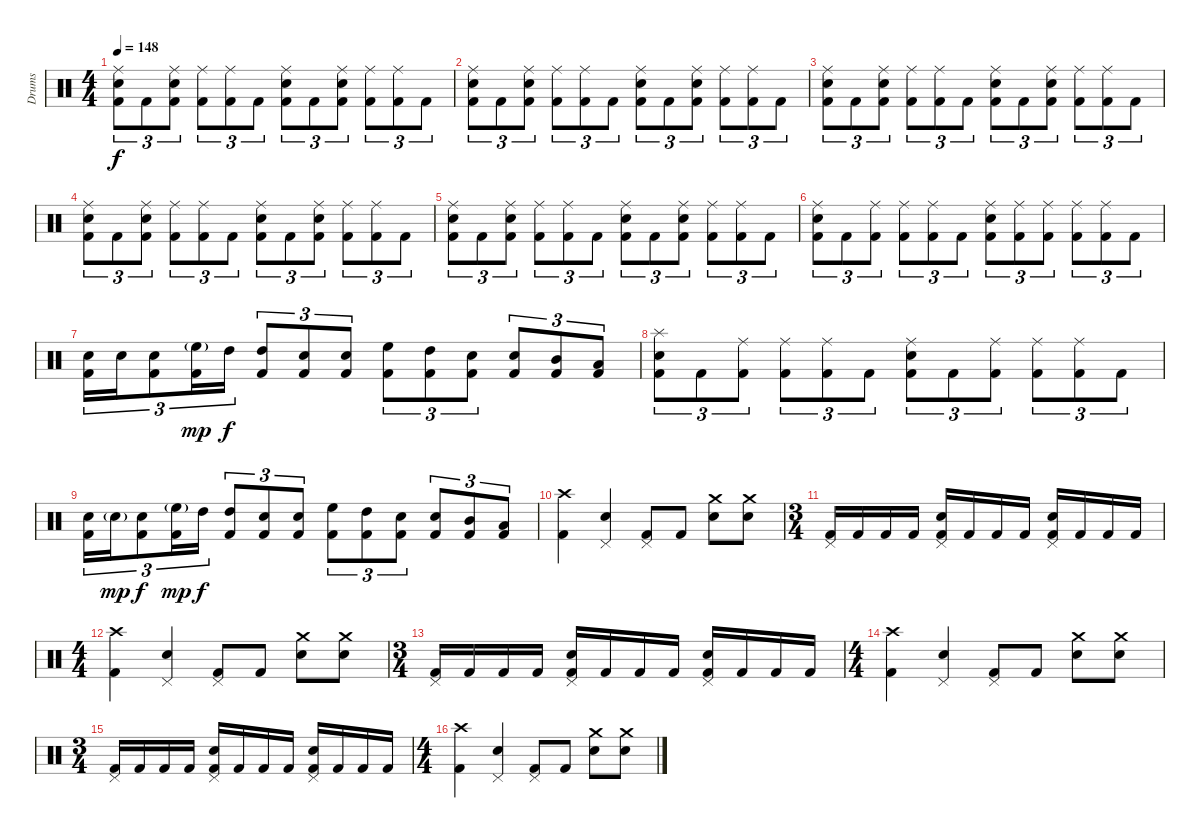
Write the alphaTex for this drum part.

\track ("Drums" "Drums") {instrument percussion}
\staff {score}
\articulation defaults
\ts (4 4)
\tempo 148
\clef neutral
\ks c
("Ride (middle)" "Snare (hit) 2" "Kick (hit) 2").8{tu (3 2) dy f} "Kick (hit) 2".8{tu (3 2)} ("Ride (middle)" "Snare (hit) 2" "Kick (hit) 2").8{tu (3 2)} ("Ride (middle)" "Kick (hit) 2").8{tu (3 2)} ("Ride (middle)" "Kick (hit) 2").8{tu (3 2)} "Kick (hit) 2".8{tu (3 2)} ("Ride (middle)" "Snare (hit) 2" "Kick (hit) 2").8{tu (3 2)} "Kick (hit) 2".8{tu (3 2)} ("Ride (middle)" "Snare (hit) 2" "Kick (hit) 2").8{tu (3 2)} ("Ride (middle)" "Kick (hit) 2").8{tu (3 2)} ("Ride (middle)" "Kick (hit) 2").8{tu (3 2)} "Kick (hit) 2".8{tu (3 2)} |
("Ride (middle)" "Snare (hit) 2" "Kick (hit) 2").8{tu (3 2)} "Kick (hit) 2".8{tu (3 2)} ("Ride (middle)" "Snare (hit) 2" "Kick (hit) 2").8{tu (3 2)} ("Ride (middle)" "Kick (hit) 2").8{tu (3 2)} ("Ride (middle)" "Kick (hit) 2").8{tu (3 2)} "Kick (hit) 2".8{tu (3 2)} ("Ride (middle)" "Snare (hit) 2" "Kick (hit) 2").8{tu (3 2)} "Kick (hit) 2".8{tu (3 2)} ("Ride (middle)" "Snare (hit) 2" "Kick (hit) 2").8{tu (3 2)} ("Ride (middle)" "Kick (hit) 2").8{tu (3 2)} ("Ride (middle)" "Kick (hit) 2").8{tu (3 2)} "Kick (hit) 2".8{tu (3 2)} |
("Ride (middle)" "Snare (hit) 2" "Kick (hit) 2").8{tu (3 2)} "Kick (hit) 2".8{tu (3 2)} ("Ride (middle)" "Snare (hit) 2" "Kick (hit) 2").8{tu (3 2)} ("Ride (middle)" "Kick (hit) 2").8{tu (3 2)} ("Ride (middle)" "Kick (hit) 2").8{tu (3 2)} "Kick (hit) 2".8{tu (3 2)} ("Ride (middle)" "Snare (hit) 2" "Kick (hit) 2").8{tu (3 2)} "Kick (hit) 2".8{tu (3 2)} ("Ride (middle)" "Snare (hit) 2" "Kick (hit) 2").8{tu (3 2)} ("Ride (middle)" "Kick (hit) 2").8{tu (3 2)} ("Ride (middle)" "Kick (hit) 2").8{tu (3 2)} "Kick (hit) 2".8{tu (3 2)} |
("Ride (middle)" "Snare (hit) 2" "Kick (hit) 2").8{tu (3 2)} "Kick (hit) 2".8{tu (3 2)} ("Ride (middle)" "Snare (hit) 2" "Kick (hit) 2").8{tu (3 2)} ("Ride (middle)" "Kick (hit) 2").8{tu (3 2)} ("Ride (middle)" "Kick (hit) 2").8{tu (3 2)} "Kick (hit) 2".8{tu (3 2)} ("Ride (middle)" "Snare (hit) 2" "Kick (hit) 2").8{tu (3 2)} "Kick (hit) 2".8{tu (3 2)} ("Ride (middle)" "Snare (hit) 2" "Kick (hit) 2").8{tu (3 2)} ("Ride (middle)" "Kick (hit) 2").8{tu (3 2)} ("Ride (middle)" "Kick (hit) 2").8{tu (3 2)} "Kick (hit) 2".8{tu (3 2)} |
("Ride (middle)" "Snare (hit) 2" "Kick (hit) 2").8{tu (3 2)} "Kick (hit) 2".8{tu (3 2)} ("Ride (middle)" "Snare (hit) 2" "Kick (hit) 2").8{tu (3 2)} ("Ride (middle)" "Kick (hit) 2").8{tu (3 2)} ("Ride (middle)" "Kick (hit) 2").8{tu (3 2)} "Kick (hit) 2".8{tu (3 2)} ("Ride (middle)" "Snare (hit) 2" "Kick (hit) 2").8{tu (3 2)} "Kick (hit) 2".8{tu (3 2)} ("Ride (middle)" "Snare (hit) 2" "Kick (hit) 2").8{tu (3 2)} ("Ride (middle)" "Kick (hit) 2").8{tu (3 2)} ("Ride (middle)" "Kick (hit) 2").8{tu (3 2)} "Kick (hit) 2".8{tu (3 2)} |
("Ride (middle)" "Snare (hit) 2" "Kick (hit) 2").8{tu (3 2)} "Kick (hit) 2".8{tu (3 2)} ("Ride (middle)" "Kick (hit) 2").8{tu (3 2)} ("Ride (middle)" "Kick (hit) 2").8{tu (3 2)} ("Ride (middle)" "Kick (hit) 2").8{tu (3 2)} "Kick (hit) 2".8{tu (3 2)} ("Ride (middle)" "Snare (hit) 2" "Kick (hit) 2").8{tu (3 2)} ("Ride (middle)" "Kick (hit) 2").8{tu (3 2)} ("Ride (middle)" "Kick (hit) 2").8{tu (3 2)} ("Ride (middle)" "Kick (hit) 2").8{tu (3 2)} ("Ride (middle)" "Kick (hit) 2").8{tu (3 2)} "Kick (hit) 2".8{tu (3 2)} |
("Snare (hit) 2" "Kick (hit) 2").16{tu (3 2)} "Snare (hit) 2".16{tu (3 2)} ("Snare (hit) 2" "Kick (hit) 2").8{tu (3 2)} ("High Floor Tom (hit)"{g} "Kick (hit) 2").16{tu (3 2) dy mp} "High Tom (hit)".16{tu (3 2) dy f} ("High Tom (hit)" "Kick (hit) 2").8{tu (3 2)} ("Snare (hit) 2" "Kick (hit) 2").8{tu (3 2)} ("Snare (hit) 2" "Kick (hit) 2").8{tu (3 2)} ("High Floor Tom (hit)" "Kick (hit) 2").8{tu (3 2)} ("High Tom (hit)" "Kick (hit) 2").8{tu (3 2)} ("Snare (hit) 2" "Kick (hit) 2").8{tu (3 2)} ("Snare (hit) 2" "Kick (hit) 2").8{tu (3 2)} ("Mid Tom (hit)" "Kick (hit) 2").8{tu (3 2)} ("Low Tom (hit)" "Kick (hit) 2").8{tu (3 2)} |
("Splash (hit)" "Snare (hit) 2" "Kick (hit) 2").8{tu (3 2)} "Kick (hit) 2".8{tu (3 2)} ("Ride (middle)" "Kick (hit) 2").8{tu (3 2)} ("Ride (middle)" "Kick (hit) 2").8{tu (3 2)} ("Ride (middle)" "Kick (hit) 2").8{tu (3 2)} "Kick (hit) 2".8{tu (3 2)} ("Ride (middle)" "Snare (hit) 2" "Kick (hit) 2").8{tu (3 2)} "Kick (hit) 2".8{tu (3 2)} ("Ride (middle)" "Kick (hit) 2").8{tu (3 2)} ("Ride (middle)" "Kick (hit) 2").8{tu (3 2)} ("Ride (middle)" "Kick (hit) 2").8{tu (3 2)} "Kick (hit) 2".8{tu (3 2)} |
("Snare (hit) 2" "Kick (hit) 2").16{tu (3 2)} "Snare (hit) 2"{g}.16{tu (3 2) dy mp} ("Snare (hit) 2" "Kick (hit) 2").8{tu (3 2) dy f} ("High Floor Tom (hit)"{g} "Kick (hit) 2").16{tu (3 2) dy mp} "High Tom (hit)".16{tu (3 2) dy f} ("High Tom (hit)" "Kick (hit) 2").8{tu (3 2)} ("Snare (hit) 2" "Kick (hit) 2").8{tu (3 2)} ("Snare (hit) 2" "Kick (hit) 2").8{tu (3 2)} ("High Floor Tom (hit)" "Kick (hit) 2").8{tu (3 2)} ("High Tom (hit)" "Kick (hit) 2").8{tu (3 2)} ("Snare (hit) 2" "Kick (hit) 2").8{tu (3 2)} ("Snare (hit) 2" "Kick (hit) 2").8{tu (3 2)} ("Mid Tom (hit)" "Kick (hit) 2").8{tu (3 2)} ("Low Tom (hit)" "Kick (hit) 2").8{tu (3 2)} |
("Crash high (hit)" "Kick (hit) 2").4 ("Pedal Hi-Hat (hit)" "Snare (hit) 2").4 ("Pedal Hi-Hat (hit)" "Kick (hit) 2").8 "Kick (hit) 2".8 ("Crash medium (hit)" "Snare (hit) 2").8 ("Crash medium (hit)" "Snare (hit) 2").8 |
\ts (3 4)
("Pedal Hi-Hat (hit)" "Kick (hit) 2").16 "Kick (hit) 2".16 "Kick (hit) 2".16 "Kick (hit) 2".16 ("Pedal Hi-Hat (hit)" "Snare (hit) 2" "Kick (hit) 2").16 "Kick (hit) 2".16 "Kick (hit) 2".16 "Kick (hit) 2".16 ("Pedal Hi-Hat (hit)" "Snare (hit) 2" "Kick (hit) 2").16 "Kick (hit) 2".16 "Kick (hit) 2".16 "Kick (hit) 2".16 |
\ts (4 4)
("Crash high (hit)" "Kick (hit) 2").4 ("Pedal Hi-Hat (hit)" "Snare (hit) 2").4 ("Pedal Hi-Hat (hit)" "Kick (hit) 2").8 "Kick (hit) 2".8 ("Crash medium (hit)" "Snare (hit) 2").8 ("Crash medium (hit)" "Snare (hit) 2").8 |
\ts (3 4)
("Pedal Hi-Hat (hit)" "Kick (hit) 2").16 "Kick (hit) 2".16 "Kick (hit) 2".16 "Kick (hit) 2".16 ("Pedal Hi-Hat (hit)" "Snare (hit) 2" "Kick (hit) 2").16 "Kick (hit) 2".16 "Kick (hit) 2".16 "Kick (hit) 2".16 ("Pedal Hi-Hat (hit)" "Snare (hit) 2" "Kick (hit) 2").16 "Kick (hit) 2".16 "Kick (hit) 2".16 "Kick (hit) 2".16 |
\ts (4 4)
("Crash high (hit)" "Kick (hit) 2").4 ("Pedal Hi-Hat (hit)" "Snare (hit) 2").4 ("Pedal Hi-Hat (hit)" "Kick (hit) 2").8 "Kick (hit) 2".8 ("Crash medium (hit)" "Snare (hit) 2").8 ("Crash medium (hit)" "Snare (hit) 2").8 |
\ts (3 4)
("Pedal Hi-Hat (hit)" "Kick (hit) 2").16 "Kick (hit) 2".16 "Kick (hit) 2".16 "Kick (hit) 2".16 ("Pedal Hi-Hat (hit)" "Snare (hit) 2" "Kick (hit) 2").16 "Kick (hit) 2".16 "Kick (hit) 2".16 "Kick (hit) 2".16 ("Pedal Hi-Hat (hit)" "Snare (hit) 2" "Kick (hit) 2").16 "Kick (hit) 2".16 "Kick (hit) 2".16 "Kick (hit) 2".16 |
\ts (4 4)
("Crash high (hit)" "Kick (hit) 2").4 ("Pedal Hi-Hat (hit)" "Snare (hit) 2").4 ("Pedal Hi-Hat (hit)" "Kick (hit) 2").8 "Kick (hit) 2".8 ("Crash medium (hit)" "Snare (hit) 2").8 ("Crash medium (hit)" "Snare (hit) 2").8
